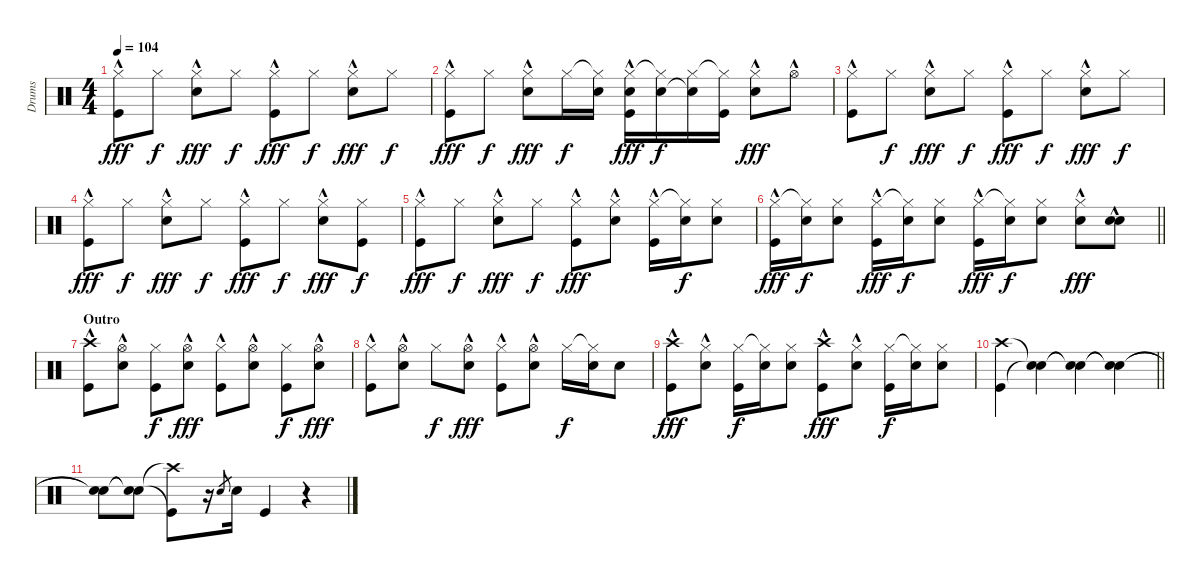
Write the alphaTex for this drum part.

\track ("Drums" "Drums") {instrument percussion}
\staff {score}
\articulation defaults
\ts (4 4)
\tempo 104
\clef neutral
\ks c
("Hi-Hat (closed)"{hac} "Kick (hit)"{hac}).8{dy fff} "Hi-Hat (closed)".8{dy f} ("Hi-Hat (closed)"{hac} "Snare (hit) 2"{hac}).8{dy fff} "Hi-Hat (closed)".8{dy f} ("Hi-Hat (closed)"{hac} "Kick (hit)"{hac}).8{dy fff} "Hi-Hat (closed)".8{dy f} ("Hi-Hat (closed)"{hac} "Snare (hit) 2"{hac}).8{dy fff} "Hi-Hat (closed)".8{dy f} |
("Hi-Hat (closed)"{hac} "Kick (hit)"{hac}).8{dy fff} "Hi-Hat (closed)".8{dy f} ("Hi-Hat (closed)"{hac} "Snare (hit) 2"{hac}).8{dy fff} "Hi-Hat (closed)".16{dy f} ("Hi-Hat (closed)"{t} "Snare (hit) 2").16 ("Hi-Hat (closed)"{hac} "Snare (hit) 2" "Kick (hit)").16{dy fff} ("Hi-Hat (closed)"{t} "Snare (hit) 2").16{dy f} ("Hi-Hat (closed)" "Snare (hit) 2"{t}).16 ("Hi-Hat (closed)"{t} "Kick (hit)").16 ("Hi-Hat (closed)"{hac} "Snare (hit) 2"{hac}).8{dy fff} "Hi-Hat (open)"{hac}.8 |
("Hi-Hat (closed)"{hac} "Kick (hit)"{hac}).8 "Hi-Hat (closed)".8{dy f} ("Hi-Hat (closed)"{hac} "Snare (hit) 2"{hac}).8{dy fff} "Hi-Hat (closed)".8{dy f} ("Hi-Hat (closed)"{hac} "Kick (hit)"{hac}).8{dy fff} "Hi-Hat (closed)".8{dy f} ("Hi-Hat (closed)"{hac} "Snare (hit) 2"{hac}).8{dy fff} "Hi-Hat (closed)".8{dy f} |
("Hi-Hat (closed)"{hac} "Kick (hit)"{hac}).8{dy fff} "Hi-Hat (closed)".8{dy f} ("Hi-Hat (closed)"{hac} "Snare (hit) 2"{hac}).8{dy fff} "Hi-Hat (closed)".8{dy f} ("Hi-Hat (closed)"{hac} "Kick (hit)"{hac}).8{dy fff} "Hi-Hat (closed)".8{dy f} ("Hi-Hat (closed)"{hac} "Snare (hit) 2"{hac}).8{dy fff} ("Hi-Hat (closed)" "Kick (hit)").8{dy f} |
("Hi-Hat (closed)"{hac} "Kick (hit)"{hac}).8{dy fff} "Hi-Hat (closed)".8{dy f} ("Hi-Hat (closed)"{hac} "Snare (hit) 2"{hac}).8{dy fff} "Hi-Hat (closed)".8{dy f} ("Hi-Hat (closed)" "Kick (hit)"{hac}).8{dy fff} ("Hi-Hat (closed)"{hac} "Snare (hit) 2").8 ("Hi-Hat (closed)" "Kick (hit)"{hac}).16 ("Hi-Hat (closed)"{t} "Snare (hit) 2").16{dy f} ("Hi-Hat (closed)" "Snare (hit) 2").8 |
\barLineRight lightlight
("Hi-Hat (closed)" "Kick (hit)"{hac}).16{dy fff} ("Hi-Hat (closed)"{t} "Snare (hit) 2").16{dy f} ("Hi-Hat (closed)" "Snare (hit) 2").8 ("Hi-Hat (closed)" "Kick (hit)"{hac}).16{dy fff} ("Hi-Hat (closed)"{t} "Snare (hit) 2").16{dy f} ("Hi-Hat (closed)" "Snare (hit) 2").8 ("Hi-Hat (closed)" "Kick (hit)"{hac}).16{dy fff} ("Hi-Hat (closed)"{t} "Snare (hit) 2").16{dy f} ("Hi-Hat (closed)" "Snare (hit) 2").8 ("Hi-Hat (closed)" "Snare (hit) 2"{hac}).8{dy fff} ("Snare (hit) 2"{hac} "Snare (hit) 2"{hac}).8 |
\section ("" "Outro")
("Crash high (hit)"{hac} "Kick (hit)"{hac}).8 ("Hi-Hat (open)"{hac} "Snare (hit) 2"{hac}).8 ("Hi-Hat (closed)" "Kick (hit)").8{dy f} ("Hi-Hat (open)"{hac} "Snare (hit) 2"{hac}).8{dy fff} ("Hi-Hat (closed)" "Kick (hit)"{hac}).8 ("Hi-Hat (open)"{hac} "Snare (hit) 2"{hac}).8 ("Hi-Hat (closed)" "Kick (hit)").8{dy f} ("Hi-Hat (open)"{hac} "Snare (hit) 2"{hac}).8{dy fff} |
("Hi-Hat (closed)" "Kick (hit)"{hac}).8 ("Hi-Hat (open)"{hac} "Snare (hit) 2"{hac}).8 "Hi-Hat (closed)".8{dy f} ("Hi-Hat (open)"{hac} "Snare (hit) 2"{hac}).8{dy fff} ("Hi-Hat (closed)" "Kick (hit)"{hac}).8 ("Hi-Hat (open)"{hac} "Snare (hit) 2"{hac}).8 "Hi-Hat (closed)".16{dy f} ("Hi-Hat (closed)"{t} "Snare (hit) 2").16 "Snare (hit) 2".8 |
("Crash high (hit)"{hac} "Kick (hit)").8{dy fff} ("Hi-Hat (closed)"{hac} "Snare (hit) 2").8 ("Hi-Hat (closed)" "Kick (hit)").16{dy f} ("Hi-Hat (closed)"{t} "Snare (hit) 2").16 ("Hi-Hat (closed)" "Snare (hit) 2").8 ("Crash high (hit)"{hac} "Kick (hit)").8{dy fff} ("Hi-Hat (closed)"{hac} "Snare (hit) 2").8 ("Hi-Hat (closed)" "Kick (hit)").16{dy f} ("Hi-Hat (closed)"{t} "Snare (hit) 2").16 ("Hi-Hat (closed)" "Snare (hit) 2").8 |
\barLineRight lightlight
("Crash high (hit)" "Kick (hit)").4 ("Snare (hit)"{t} "Snare (hit)"{t}).4 ("Snare (hit)"{t} "Snare (hit)"{t}).4 ("Snare (hit)"{t} "Snare (hit)"{t}).4 |
("Snare (hit)"{t} "Snare (hit)"{t}).8 ("Snare (hit)"{t} "Snare (hit)"{t}).8 ("Crash high (hit)"{t} "Kick (hit)"{t}).8 r.16 "Snare (hit) 2".8{gr} "Snare (hit) 2".16 "Kick (hit)".4 r.4
